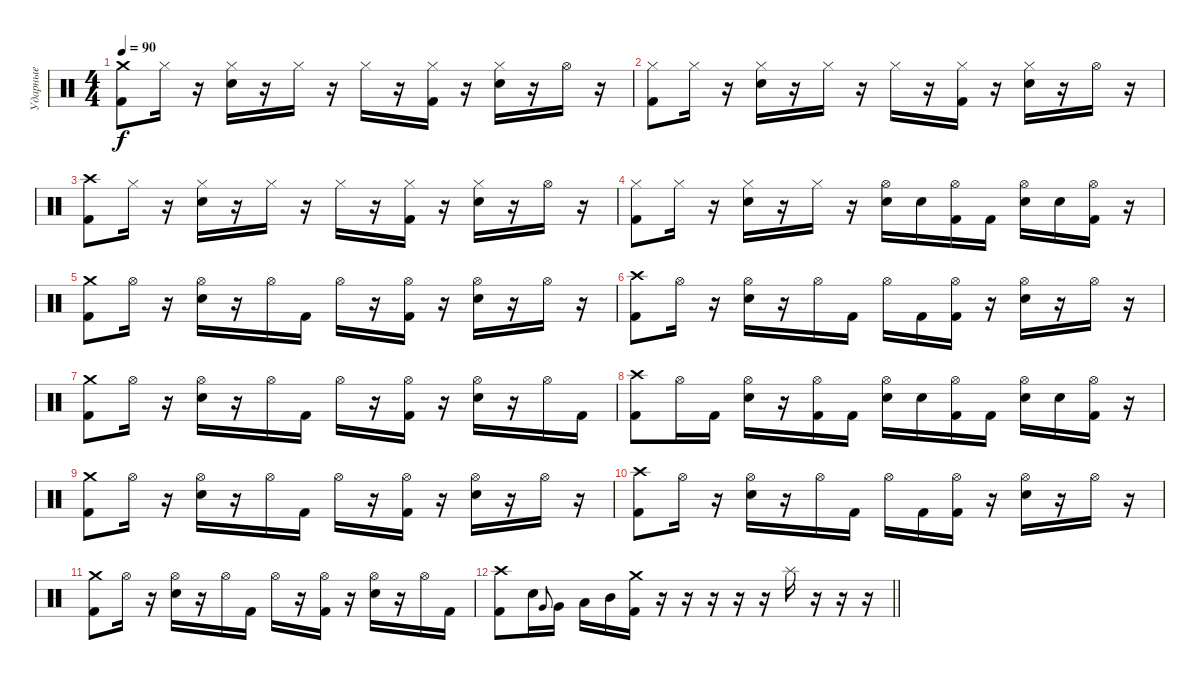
\track ("Ударные" "Ударные") {instrument percussion}
\staff {score}
\articulation defaults
\ts (4 4)
\tempo 90
\clef neutral
\ks c
("Crash medium (hit)" "Kick (hit) 2").8{dy f} "Hi-Hat (closed)".16 r.16 ("Hi-Hat (closed)" "Electric Snare (hit)").16 r.16 "Hi-Hat (closed)".16 r.16 "Hi-Hat (closed)".16 r.16 ("Hi-Hat (closed)" "Kick (hit) 2").16 r.16 ("Hi-Hat (closed)" "Electric Snare (hit)").16 r.16 "Hi-Hat (open)".16 r.16 |
("Hi-Hat (closed)" "Kick (hit) 2").8 "Hi-Hat (closed)".16 r.16 ("Hi-Hat (closed)" "Electric Snare (hit)").16 r.16 "Hi-Hat (closed)".16 r.16 "Hi-Hat (closed)".16 r.16 ("Hi-Hat (closed)" "Kick (hit) 2").16 r.16 ("Hi-Hat (closed)" "Electric Snare (hit)").16 r.16 "Hi-Hat (open)".16 r.16 |
("Crash high (hit)" "Kick (hit) 2").8 "Hi-Hat (closed)".16 r.16 ("Hi-Hat (closed)" "Electric Snare (hit)").16 r.16 "Hi-Hat (closed)".16 r.16 "Hi-Hat (closed)".16 r.16 ("Hi-Hat (closed)" "Kick (hit) 2").16 r.16 ("Hi-Hat (closed)" "Electric Snare (hit)").16 r.16 "Hi-Hat (open)".16 r.16 |
("Hi-Hat (closed)" "Kick (hit) 2").8 "Hi-Hat (closed)".16 r.16 ("Hi-Hat (closed)" "Electric Snare (hit)").16 r.16 "Hi-Hat (closed)".16 r.16 ("Hi-Hat (open)" "Electric Snare (hit)").16 "Electric Snare (hit)".16 ("Hi-Hat (open)" "Kick (hit) 2").16 "Kick (hit) 2".16 ("Hi-Hat (open)" "Electric Snare (hit)").16 "Electric Snare (hit)".16 ("Hi-Hat (open)" "Kick (hit) 2").16 r.16 |
("Crash medium (hit)" "Kick (hit) 2").8 "Hi-Hat (open)".16 r.16 ("Hi-Hat (open)" "Electric Snare (hit)").16 r.16 "Hi-Hat (open)".16 "Kick (hit) 2".16 "Hi-Hat (open)".16 r.16 ("Hi-Hat (open)" "Kick (hit) 2").16 r.16 ("Hi-Hat (open)" "Electric Snare (hit)").16 r.16 "Hi-Hat (open)".16 r.16 |
("Crash high (hit)" "Kick (hit) 2").8 "Hi-Hat (open)".16 r.16 ("Hi-Hat (open)" "Electric Snare (hit)").16 r.16 "Hi-Hat (open)".16 "Kick (hit) 2".16 "Hi-Hat (open)".16 "Kick (hit) 2".16 ("Hi-Hat (open)" "Kick (hit) 2").16 r.16 ("Hi-Hat (open)" "Electric Snare (hit)").16 r.16 "Hi-Hat (open)".16 r.16 |
("Crash medium (hit)" "Kick (hit) 2").8 "Hi-Hat (open)".16 r.16 ("Hi-Hat (open)" "Electric Snare (hit)").16 r.16 "Hi-Hat (open)".16 "Kick (hit) 2".16 "Hi-Hat (open)".16 r.16 ("Hi-Hat (open)" "Kick (hit) 2").16 r.16 ("Hi-Hat (open)" "Electric Snare (hit)").16 r.16 "Hi-Hat (open)".16 "Kick (hit) 2".16 |
("Crash high (hit)" "Kick (hit) 2").8 "Hi-Hat (open)".16 "Kick (hit) 2".16 ("Hi-Hat (open)" "Electric Snare (hit)").16 r.16 ("Hi-Hat (open)" "Kick (hit) 2").16 "Kick (hit) 2".16 ("Hi-Hat (open)" "Electric Snare (hit)").16 "Electric Snare (hit)".16 ("Hi-Hat (open)" "Kick (hit) 2").16 "Kick (hit) 2".16 ("Hi-Hat (open)" "Electric Snare (hit)").16 "Electric Snare (hit)".16 ("Hi-Hat (open)" "Kick (hit) 2").16 r.16 |
("Crash medium (hit)" "Kick (hit) 2").8 "Hi-Hat (open)".16 r.16 ("Hi-Hat (open)" "Electric Snare (hit)").16 r.16 "Hi-Hat (open)".16 "Kick (hit) 2".16 "Hi-Hat (open)".16 r.16 ("Hi-Hat (open)" "Kick (hit) 2").16 r.16 ("Hi-Hat (open)" "Electric Snare (hit)").16 r.16 "Hi-Hat (open)".16 r.16 |
("Crash high (hit)" "Kick (hit) 2").8 "Hi-Hat (open)".16 r.16 ("Hi-Hat (open)" "Electric Snare (hit)").16 r.16 "Hi-Hat (open)".16 "Kick (hit) 2".16 "Hi-Hat (open)".16 "Kick (hit) 2".16 ("Hi-Hat (open)" "Kick (hit) 2").16 r.16 ("Hi-Hat (open)" "Electric Snare (hit)").16 r.16 "Hi-Hat (open)".16 r.16 |
("Crash medium (hit)" "Kick (hit) 2").8 "Hi-Hat (open)".16 r.16 ("Hi-Hat (open)" "Electric Snare (hit)").16 r.16 "Hi-Hat (open)".16 "Kick (hit) 2".16 "Hi-Hat (open)".16 r.16 ("Hi-Hat (open)" "Kick (hit) 2").16 r.16 ("Hi-Hat (open)" "Electric Snare (hit)").16 r.16 "Hi-Hat (open)".16 "Kick (hit) 2".16 |
\barLineRight lightlight
("Crash high (hit)" "Kick (hit) 2").8 "Electric Snare (hit)".16 "Very Low Tom (hit)".8{gr onbeat} "Very Low Tom (hit)".16 "Low Tom (hit)".16 "Mid Tom (hit)".16 ("Crash medium (hit)" "Kick (hit) 2").16 r.16 r.16 r.16 r.16 r.16 "Splash (hit)".16 r.16 r.16 r.16
